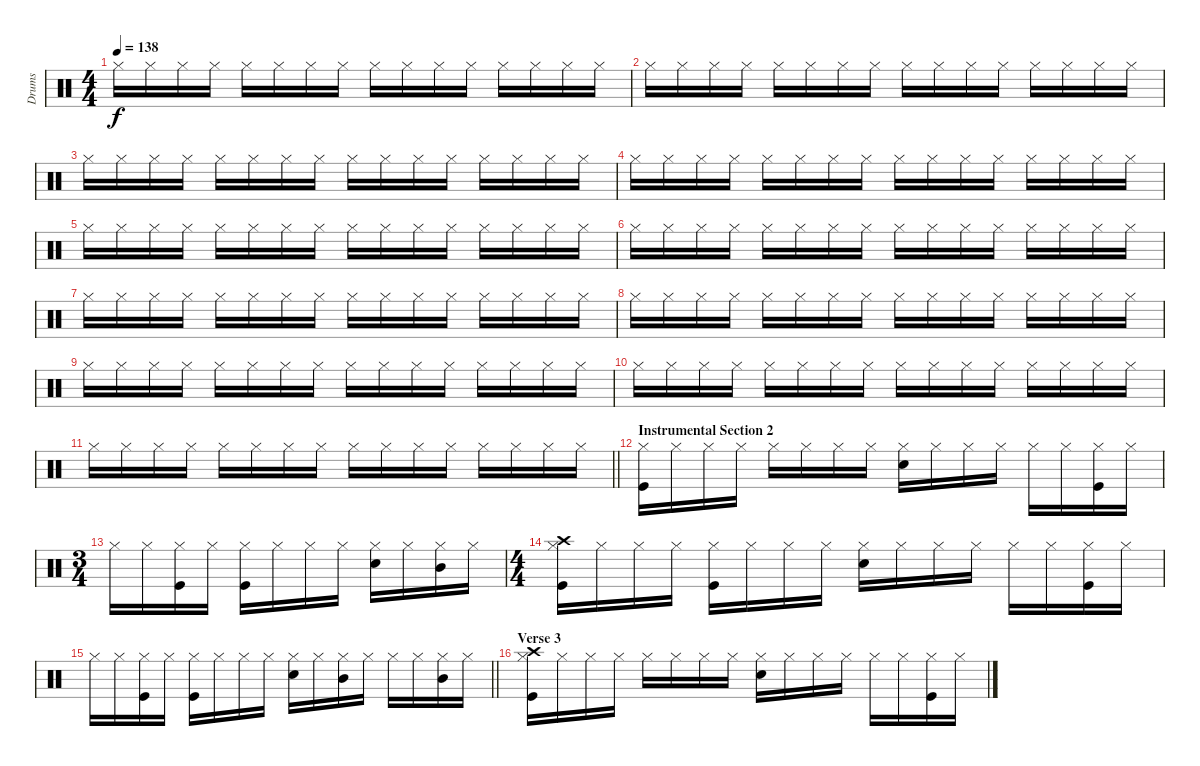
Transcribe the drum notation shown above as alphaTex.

\track ("Drums" "Drums") {instrument percussion}
\staff {score}
\articulation defaults
\ts (4 4)
\tempo 138
\clef neutral
\ks c "Hi-Hat (closed)".16{dy f} "Hi-Hat (closed)".16 "Hi-Hat (closed)".16 "Hi-Hat (closed)".16 "Hi-Hat (closed)".16 "Hi-Hat (closed)".16 "Hi-Hat (closed)".16 "Hi-Hat (closed)".16 "Hi-Hat (closed)".16 "Hi-Hat (closed)".16 "Hi-Hat (closed)".16 "Hi-Hat (closed)".16 "Hi-Hat (closed)".16 "Hi-Hat (closed)".16 "Hi-Hat (closed)".16 "Hi-Hat (closed)".16
|
"Hi-Hat (closed)".16 "Hi-Hat (closed)".16 "Hi-Hat (closed)".16 "Hi-Hat (closed)".16 "Hi-Hat (closed)".16 "Hi-Hat (closed)".16 "Hi-Hat (closed)".16 "Hi-Hat (closed)".16 "Hi-Hat (closed)".16 "Hi-Hat (closed)".16 "Hi-Hat (closed)".16 "Hi-Hat (closed)".16 "Hi-Hat (closed)".16 "Hi-Hat (closed)".16 "Hi-Hat (closed)".16 "Hi-Hat (closed)".16 |
"Hi-Hat (closed)".16 "Hi-Hat (closed)".16 "Hi-Hat (closed)".16 "Hi-Hat (closed)".16 "Hi-Hat (closed)".16 "Hi-Hat (closed)".16 "Hi-Hat (closed)".16 "Hi-Hat (closed)".16 "Hi-Hat (closed)".16 "Hi-Hat (closed)".16 "Hi-Hat (closed)".16 "Hi-Hat (closed)".16 "Hi-Hat (closed)".16 "Hi-Hat (closed)".16 "Hi-Hat (closed)".16 "Hi-Hat (closed)".16 |
"Hi-Hat (closed)".16 "Hi-Hat (closed)".16 "Hi-Hat (closed)".16 "Hi-Hat (closed)".16 "Hi-Hat (closed)".16 "Hi-Hat (closed)".16 "Hi-Hat (closed)".16 "Hi-Hat (closed)".16 "Hi-Hat (closed)".16 "Hi-Hat (closed)".16 "Hi-Hat (closed)".16 "Hi-Hat (closed)".16 "Hi-Hat (closed)".16 "Hi-Hat (closed)".16 "Hi-Hat (closed)".16 "Hi-Hat (closed)".16 |
"Hi-Hat (closed)".16 "Hi-Hat (closed)".16 "Hi-Hat (closed)".16 "Hi-Hat (closed)".16 "Hi-Hat (closed)".16 "Hi-Hat (closed)".16 "Hi-Hat (closed)".16 "Hi-Hat (closed)".16 "Hi-Hat (closed)".16 "Hi-Hat (closed)".16 "Hi-Hat (closed)".16 "Hi-Hat (closed)".16 "Hi-Hat (closed)".16 "Hi-Hat (closed)".16 "Hi-Hat (closed)".16 "Hi-Hat (closed)".16 |
"Hi-Hat (closed)".16 "Hi-Hat (closed)".16 "Hi-Hat (closed)".16 "Hi-Hat (closed)".16 "Hi-Hat (closed)".16 "Hi-Hat (closed)".16 "Hi-Hat (closed)".16 "Hi-Hat (closed)".16 "Hi-Hat (closed)".16 "Hi-Hat (closed)".16 "Hi-Hat (closed)".16 "Hi-Hat (closed)".16 "Hi-Hat (closed)".16 "Hi-Hat (closed)".16 "Hi-Hat (closed)".16 "Hi-Hat (closed)".16 |
"Hi-Hat (closed)".16 "Hi-Hat (closed)".16 "Hi-Hat (closed)".16 "Hi-Hat (closed)".16 "Hi-Hat (closed)".16 "Hi-Hat (closed)".16 "Hi-Hat (closed)".16 "Hi-Hat (closed)".16 "Hi-Hat (closed)".16 "Hi-Hat (closed)".16 "Hi-Hat (closed)".16 "Hi-Hat (closed)".16 "Hi-Hat (closed)".16 "Hi-Hat (closed)".16 "Hi-Hat (closed)".16 "Hi-Hat (closed)".16 |
"Hi-Hat (closed)".16 "Hi-Hat (closed)".16 "Hi-Hat (closed)".16 "Hi-Hat (closed)".16 "Hi-Hat (closed)".16 "Hi-Hat (closed)".16 "Hi-Hat (closed)".16 "Hi-Hat (closed)".16 "Hi-Hat (closed)".16 "Hi-Hat (closed)".16 "Hi-Hat (closed)".16 "Hi-Hat (closed)".16 "Hi-Hat (closed)".16 "Hi-Hat (closed)".16 "Hi-Hat (closed)".16 "Hi-Hat (closed)".16 |
"Hi-Hat (closed)".16 "Hi-Hat (closed)".16 "Hi-Hat (closed)".16 "Hi-Hat (closed)".16 "Hi-Hat (closed)".16 "Hi-Hat (closed)".16 "Hi-Hat (closed)".16 "Hi-Hat (closed)".16 "Hi-Hat (closed)".16 "Hi-Hat (closed)".16 "Hi-Hat (closed)".16 "Hi-Hat (closed)".16 "Hi-Hat (closed)".16 "Hi-Hat (closed)".16 "Hi-Hat (closed)".16 "Hi-Hat (closed)".16 |
"Hi-Hat (closed)".16 "Hi-Hat (closed)".16 "Hi-Hat (closed)".16 "Hi-Hat (closed)".16 "Hi-Hat (closed)".16 "Hi-Hat (closed)".16 "Hi-Hat (closed)".16 "Hi-Hat (closed)".16 "Hi-Hat (closed)".16 "Hi-Hat (closed)".16 "Hi-Hat (closed)".16 "Hi-Hat (closed)".16 "Hi-Hat (closed)".16 "Hi-Hat (closed)".16 "Hi-Hat (closed)".16 "Hi-Hat (closed)".16 |
\barLineRight lightlight "Hi-Hat (closed)".16 "Hi-Hat (closed)".16 "Hi-Hat (closed)".16 "Hi-Hat (closed)".16 "Hi-Hat (closed)".16 "Hi-Hat (closed)".16 "Hi-Hat (closed)".16 "Hi-Hat (closed)".16 "Hi-Hat (closed)".16 "Hi-Hat (closed)".16 "Hi-Hat (closed)".16 "Hi-Hat (closed)".16 "Hi-Hat (closed)".16 "Hi-Hat (closed)".16 "Hi-Hat (closed)".16 "Hi-Hat (closed)".16
|
\section ("" "Instrumental Section 2")
("Hi-Hat (closed)" "Kick (hit)").16 "Hi-Hat (closed)".16 "Hi-Hat (closed)".16 "Hi-Hat (closed)".16 "Hi-Hat (closed)".16 "Hi-Hat (closed)".16 "Hi-Hat (closed)".16 "Hi-Hat (closed)".16 ("Hi-Hat (closed)" "Electric Snare (hit)").16 "Hi-Hat (closed)".16 "Hi-Hat (closed)".16 "Hi-Hat (closed)".16 "Hi-Hat (closed)".16 "Hi-Hat (closed)".16 ("Hi-Hat (closed)" "Kick (hit)").16 "Hi-Hat (closed)".16 |
\ts (3 4)
"Hi-Hat (closed)".16 "Hi-Hat (closed)".16 ("Hi-Hat (closed)" "Kick (hit)").16 "Hi-Hat (closed)".16 ("Hi-Hat (closed)" "Kick (hit)").16 "Hi-Hat (closed)".16 "Hi-Hat (closed)".16 "Hi-Hat (closed)".16 ("Hi-Hat (closed)" "Electric Snare (hit)").16 "Hi-Hat (closed)".16 ("Hi-Hat (closed)" "Mid Tom (hit)").16 "Hi-Hat (closed)".16 |
\ts (4 4)
("Crash high (hit)" "Hi-Hat (closed)" "Kick (hit)").16 "Hi-Hat (closed)".16 "Hi-Hat (closed)".16 "Hi-Hat (closed)".16 ("Hi-Hat (closed)" "Kick (hit)").16 "Hi-Hat (closed)".16 "Hi-Hat (closed)".16 "Hi-Hat (closed)".16 ("Hi-Hat (closed)" "Electric Snare (hit)").16 "Hi-Hat (closed)".16 "Hi-Hat (closed)".16 "Hi-Hat (closed)".16 "Hi-Hat (closed)".16 "Hi-Hat (closed)".16 ("Hi-Hat (closed)" "Kick (hit)").16 "Hi-Hat (closed)".16 |
\barLineRight lightlight "Hi-Hat (closed)".16 "Hi-Hat (closed)".16
("Hi-Hat (closed)" "Kick (hit)").16 "Hi-Hat (closed)".16 ("Hi-Hat (closed)" "Kick (hit)").16 "Hi-Hat (closed)".16 "Hi-Hat (closed)".16 "Hi-Hat (closed)".16 ("Hi-Hat (closed)" "Electric Snare (hit)").16 "Hi-Hat (closed)".16 ("Hi-Hat (closed)" "Mid Tom (hit)").16 "Hi-Hat (closed)".16 "Hi-Hat (closed)".16 "Hi-Hat (closed)".16 ("Hi-Hat (closed)" "Mid Tom (hit)").16 "Hi-Hat (closed)".16 |
\section ("" "Verse 3")
("Crash high (hit)" "Hi-Hat (closed)" "Kick (hit)").16 "Hi-Hat (closed)".16 "Hi-Hat (closed)".16 "Hi-Hat (closed)".16 "Hi-Hat (closed)".16 "Hi-Hat (closed)".16 "Hi-Hat (closed)".16 "Hi-Hat (closed)".16 ("Hi-Hat (closed)" "Electric Snare (hit)").16 "Hi-Hat (closed)".16 "Hi-Hat (closed)".16 "Hi-Hat (closed)".16 "Hi-Hat (closed)".16 "Hi-Hat (closed)".16 ("Hi-Hat (closed)" "Kick (hit)").16 "Hi-Hat (closed)".16
